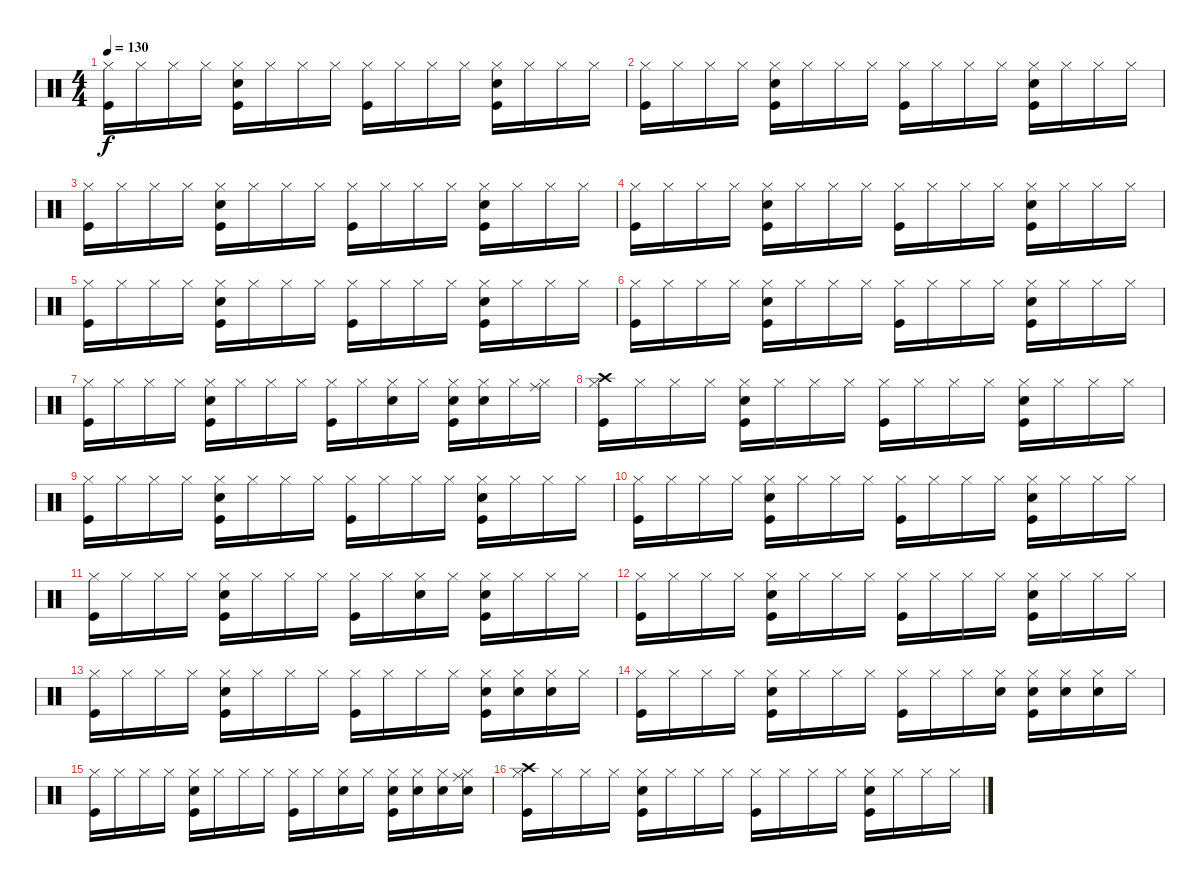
\track "" {instrument percussion}
\staff {score}
\articulation defaults
\ts (4 4)
\tempo 130
\clef neutral
\ks c
("Hi-Hat (closed)" "Kick (hit)").16{dy f} "Hi-Hat (closed)".16 "Hi-Hat (closed)".16 "Hi-Hat (closed)".16 ("Snare (hit) 2" "Hi-Hat (closed)" "Kick (hit)").16 "Hi-Hat (closed)".16 "Hi-Hat (closed)".16 "Hi-Hat (closed)".16 ("Hi-Hat (closed)" "Kick (hit)").16 "Hi-Hat (closed)".16 "Hi-Hat (closed)".16 "Hi-Hat (closed)".16 ("Snare (hit) 2" "Hi-Hat (closed)" "Kick (hit)").16 "Hi-Hat (closed)".16 "Hi-Hat (closed)".16 "Hi-Hat (closed)".16 |
("Hi-Hat (closed)" "Kick (hit)").16 "Hi-Hat (closed)".16 "Hi-Hat (closed)".16 "Hi-Hat (closed)".16 ("Snare (hit) 2" "Hi-Hat (closed)" "Kick (hit)").16 "Hi-Hat (closed)".16 "Hi-Hat (closed)".16 "Hi-Hat (closed)".16 ("Hi-Hat (closed)" "Kick (hit)").16 "Hi-Hat (closed)".16 "Hi-Hat (closed)".16 "Hi-Hat (closed)".16 ("Snare (hit) 2" "Hi-Hat (closed)" "Kick (hit)").16 "Hi-Hat (closed)".16 "Hi-Hat (closed)".16 "Hi-Hat (closed)".16 |
("Hi-Hat (closed)" "Kick (hit)").16 "Hi-Hat (closed)".16 "Hi-Hat (closed)".16 "Hi-Hat (closed)".16 ("Snare (hit) 2" "Hi-Hat (closed)" "Kick (hit)").16 "Hi-Hat (closed)".16 "Hi-Hat (closed)".16 "Hi-Hat (closed)".16 ("Hi-Hat (closed)" "Kick (hit)").16 "Hi-Hat (closed)".16 "Hi-Hat (closed)".16 "Hi-Hat (closed)".16 ("Snare (hit) 2" "Hi-Hat (closed)" "Kick (hit)").16 "Hi-Hat (closed)".16 "Hi-Hat (closed)".16 "Hi-Hat (closed)".16 |
("Hi-Hat (closed)" "Kick (hit)").16 "Hi-Hat (closed)".16 "Hi-Hat (closed)".16 "Hi-Hat (closed)".16 ("Snare (hit) 2" "Hi-Hat (closed)" "Kick (hit)").16 "Hi-Hat (closed)".16 "Hi-Hat (closed)".16 "Hi-Hat (closed)".16 ("Hi-Hat (closed)" "Kick (hit)").16 "Hi-Hat (closed)".16 "Hi-Hat (closed)".16 "Hi-Hat (closed)".16 ("Snare (hit) 2" "Hi-Hat (closed)" "Kick (hit)").16 "Hi-Hat (closed)".16 "Hi-Hat (closed)".16 "Hi-Hat (closed)".16 |
("Hi-Hat (closed)" "Kick (hit)").16 "Hi-Hat (closed)".16 "Hi-Hat (closed)".16 "Hi-Hat (closed)".16 ("Snare (hit) 2" "Hi-Hat (closed)" "Kick (hit)").16 "Hi-Hat (closed)".16 "Hi-Hat (closed)".16 "Hi-Hat (closed)".16 ("Hi-Hat (closed)" "Kick (hit)").16 "Hi-Hat (closed)".16 "Hi-Hat (closed)".16 "Hi-Hat (closed)".16 ("Snare (hit) 2" "Hi-Hat (closed)" "Kick (hit)").16 "Hi-Hat (closed)".16 "Hi-Hat (closed)".16 "Hi-Hat (closed)".16 |
("Hi-Hat (closed)" "Kick (hit)").16 "Hi-Hat (closed)".16 "Hi-Hat (closed)".16 "Hi-Hat (closed)".16 ("Snare (hit) 2" "Hi-Hat (closed)" "Kick (hit)").16 "Hi-Hat (closed)".16 "Hi-Hat (closed)".16 "Hi-Hat (closed)".16 ("Hi-Hat (closed)" "Kick (hit)").16 "Hi-Hat (closed)".16 "Hi-Hat (closed)".16 "Hi-Hat (closed)".16 ("Snare (hit) 2" "Hi-Hat (closed)" "Kick (hit)").16 "Hi-Hat (closed)".16 "Hi-Hat (closed)".16 "Hi-Hat (closed)".16 |
("Hi-Hat (closed)" "Kick (hit)").16 "Hi-Hat (closed)".16 "Hi-Hat (closed)".16 "Hi-Hat (closed)".16 ("Snare (hit) 2" "Hi-Hat (closed)" "Kick (hit)").16 "Hi-Hat (closed)".16 "Hi-Hat (closed)".16 "Hi-Hat (closed)".16 ("Hi-Hat (closed)" "Kick (hit)").16 "Hi-Hat (closed)".16 ("Snare (hit) 2" "Hi-Hat (closed)").16 "Hi-Hat (closed)".16 ("Snare (hit) 2" "Hi-Hat (closed)" "Kick (hit)").16 ("Snare (hit) 2" "Hi-Hat (closed)").16 "Hi-Hat (closed)".16 ("Ride (middle)" "Hi-Hat (closed)").16 |
("Crash high (hit)" "Hi-Hat (closed)" "Kick (hit)").16 "Hi-Hat (closed)".16 "Hi-Hat (closed)".16 "Hi-Hat (closed)".16 ("Snare (hit) 2" "Hi-Hat (closed)" "Kick (hit)").16 "Hi-Hat (closed)".16 "Hi-Hat (closed)".16 "Hi-Hat (closed)".16 ("Hi-Hat (closed)" "Kick (hit)").16 "Hi-Hat (closed)".16 "Hi-Hat (closed)".16 "Hi-Hat (closed)".16 ("Snare (hit) 2" "Hi-Hat (closed)" "Kick (hit)").16 "Hi-Hat (closed)".16 "Hi-Hat (closed)".16 "Hi-Hat (closed)".16 |
("Hi-Hat (closed)" "Kick (hit)").16 "Hi-Hat (closed)".16 "Hi-Hat (closed)".16 "Hi-Hat (closed)".16 ("Snare (hit) 2" "Hi-Hat (closed)" "Kick (hit)").16 "Hi-Hat (closed)".16 "Hi-Hat (closed)".16 "Hi-Hat (closed)".16 ("Hi-Hat (closed)" "Kick (hit)").16 "Hi-Hat (closed)".16 "Hi-Hat (closed)".16 "Hi-Hat (closed)".16 ("Snare (hit) 2" "Hi-Hat (closed)" "Kick (hit)").16 "Hi-Hat (closed)".16 "Hi-Hat (closed)".16 "Hi-Hat (closed)".16 |
("Hi-Hat (closed)" "Kick (hit)").16 "Hi-Hat (closed)".16 "Hi-Hat (closed)".16 "Hi-Hat (closed)".16 ("Snare (hit) 2" "Hi-Hat (closed)" "Kick (hit)").16 "Hi-Hat (closed)".16 "Hi-Hat (closed)".16 "Hi-Hat (closed)".16 ("Hi-Hat (closed)" "Kick (hit)").16 "Hi-Hat (closed)".16 "Hi-Hat (closed)".16 "Hi-Hat (closed)".16 ("Snare (hit) 2" "Hi-Hat (closed)" "Kick (hit)").16 "Hi-Hat (closed)".16 "Hi-Hat (closed)".16 "Hi-Hat (closed)".16 |
("Hi-Hat (closed)" "Kick (hit)").16 "Hi-Hat (closed)".16 "Hi-Hat (closed)".16 "Hi-Hat (closed)".16 ("Snare (hit) 2" "Hi-Hat (closed)" "Kick (hit)").16 "Hi-Hat (closed)".16 "Hi-Hat (closed)".16 "Hi-Hat (closed)".16 ("Hi-Hat (closed)" "Kick (hit)").16 "Hi-Hat (closed)".16 ("Snare (hit) 2" "Hi-Hat (closed)").16 "Hi-Hat (closed)".16 ("Snare (hit) 2" "Hi-Hat (closed)" "Kick (hit)").16 "Hi-Hat (closed)".16 "Hi-Hat (closed)".16 "Hi-Hat (closed)".16 |
("Hi-Hat (closed)" "Kick (hit)").16 "Hi-Hat (closed)".16 "Hi-Hat (closed)".16 "Hi-Hat (closed)".16 ("Snare (hit) 2" "Hi-Hat (closed)" "Kick (hit)").16 "Hi-Hat (closed)".16 "Hi-Hat (closed)".16 "Hi-Hat (closed)".16 ("Hi-Hat (closed)" "Kick (hit)").16 "Hi-Hat (closed)".16 "Hi-Hat (closed)".16 "Hi-Hat (closed)".16 ("Snare (hit) 2" "Hi-Hat (closed)" "Kick (hit)").16 "Hi-Hat (closed)".16 "Hi-Hat (closed)".16 "Hi-Hat (closed)".16 |
("Hi-Hat (closed)" "Kick (hit)").16 "Hi-Hat (closed)".16 "Hi-Hat (closed)".16 "Hi-Hat (closed)".16 ("Snare (hit) 2" "Hi-Hat (closed)" "Kick (hit)").16 "Hi-Hat (closed)".16 "Hi-Hat (closed)".16 "Hi-Hat (closed)".16 ("Hi-Hat (closed)" "Kick (hit)").16 "Hi-Hat (closed)".16 "Hi-Hat (closed)".16 "Hi-Hat (closed)".16 ("Snare (hit) 2" "Hi-Hat (closed)" "Kick (hit)").16 ("Snare (hit) 2" "Hi-Hat (closed)").16 ("Snare (hit) 2" "Hi-Hat (closed)").16 "Hi-Hat (closed)".16 |
("Hi-Hat (closed)" "Kick (hit)").16 "Hi-Hat (closed)".16 "Hi-Hat (closed)".16 "Hi-Hat (closed)".16 ("Snare (hit) 2" "Hi-Hat (closed)" "Kick (hit)").16 "Hi-Hat (closed)".16 "Hi-Hat (closed)".16 "Hi-Hat (closed)".16 ("Hi-Hat (closed)" "Kick (hit)").16 "Hi-Hat (closed)".16 "Hi-Hat (closed)".16 ("Snare (hit) 2" "Hi-Hat (closed)").16 ("Snare (hit) 2" "Hi-Hat (closed)" "Kick (hit)").16 ("Snare (hit) 2" "Hi-Hat (closed)").16 ("Snare (hit) 2" "Hi-Hat (closed)").16 "Hi-Hat (closed)".16 |
("Hi-Hat (closed)" "Kick (hit)").16 "Hi-Hat (closed)".16 "Hi-Hat (closed)".16 "Hi-Hat (closed)".16 ("Snare (hit) 2" "Hi-Hat (closed)" "Kick (hit)").16 "Hi-Hat (closed)".16 "Hi-Hat (closed)".16 "Hi-Hat (closed)".16 ("Hi-Hat (closed)" "Kick (hit)").16 "Hi-Hat (closed)".16 ("Snare (hit) 2" "Hi-Hat (closed)").16 "Hi-Hat (closed)".16 ("Snare (hit) 2" "Hi-Hat (closed)" "Kick (hit)").16 ("Snare (hit) 2" "Hi-Hat (closed)").16 ("Snare (hit) 2" "Hi-Hat (closed)").16 ("Snare (hit) 2" "Ride (middle)" "Hi-Hat (closed)").16 |
("Crash high (hit)" "Hi-Hat (closed)" "Kick (hit)").16 "Hi-Hat (closed)".16 "Hi-Hat (closed)".16 "Hi-Hat (closed)".16 ("Snare (hit) 2" "Hi-Hat (closed)" "Kick (hit)").16 "Hi-Hat (closed)".16 "Hi-Hat (closed)".16 "Hi-Hat (closed)".16 ("Hi-Hat (closed)" "Kick (hit)").16 "Hi-Hat (closed)".16 "Hi-Hat (closed)".16 "Hi-Hat (closed)".16 ("Snare (hit) 2" "Hi-Hat (closed)" "Kick (hit)").16 "Hi-Hat (closed)".16 "Hi-Hat (closed)".16 "Hi-Hat (closed)".16
